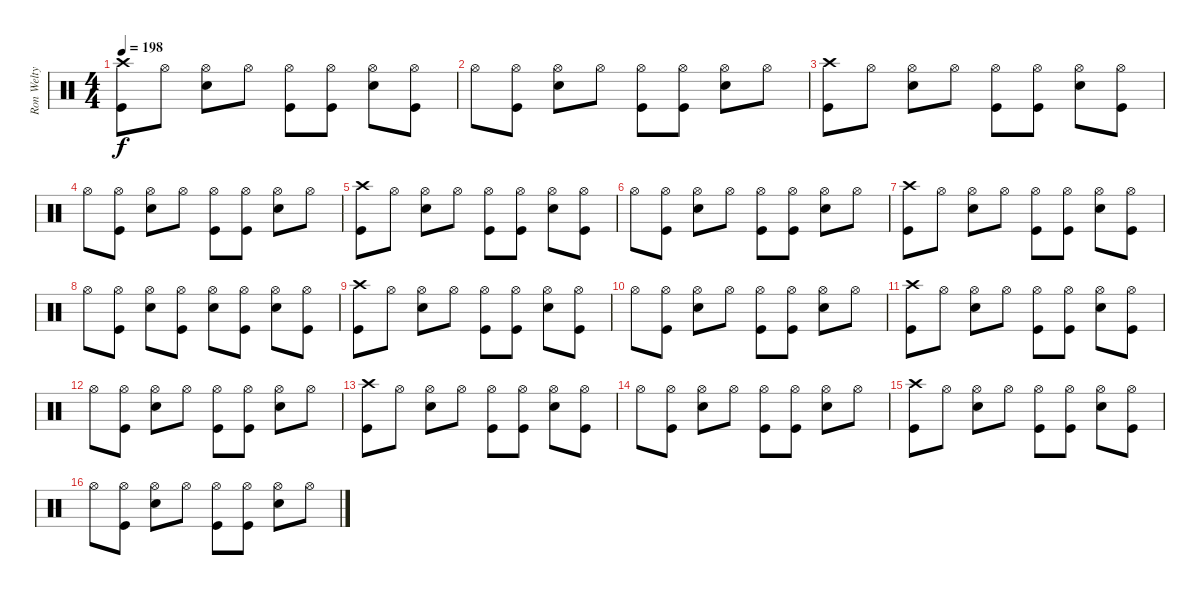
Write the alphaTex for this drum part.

\track ("Ron Welty" "Ron Welty") {instrument percussion}
\staff {score}
\articulation defaults
\ts (4 4)
\tempo 198
\clef neutral
\ks c
("Kick (hit)" "Crash high (hit)").8{dy f} "Hi-Hat (open)".8 ("Hi-Hat (open)" "Snare (hit) 2").8 "Hi-Hat (open)".8 ("Hi-Hat (open)" "Kick (hit)").8 ("Hi-Hat (open)" "Kick (hit)").8 ("Hi-Hat (open)" "Snare (hit) 2").8 ("Hi-Hat (open)" "Kick (hit)").8 |
"Hi-Hat (open)".8 ("Kick (hit)" "Hi-Hat (open)").8 ("Hi-Hat (open)" "Snare (hit) 2").8 "Hi-Hat (open)".8 ("Hi-Hat (open)" "Kick (hit)").8 ("Kick (hit)" "Hi-Hat (open)").8 ("Hi-Hat (open)" "Snare (hit) 2").8 "Hi-Hat (open)".8 |
("Kick (hit)" "Crash high (hit)").8 "Hi-Hat (open)".8 ("Hi-Hat (open)" "Snare (hit) 2").8 "Hi-Hat (open)".8 ("Hi-Hat (open)" "Kick (hit)").8 ("Hi-Hat (open)" "Kick (hit)").8 ("Hi-Hat (open)" "Snare (hit) 2").8 ("Hi-Hat (open)" "Kick (hit)").8 |
"Hi-Hat (open)".8 ("Kick (hit)" "Hi-Hat (open)").8 ("Hi-Hat (open)" "Snare (hit) 2").8 "Hi-Hat (open)".8 ("Hi-Hat (open)" "Kick (hit)").8 ("Kick (hit)" "Hi-Hat (open)").8 ("Hi-Hat (open)" "Snare (hit) 2").8 "Hi-Hat (open)".8 |
("Kick (hit)" "Crash high (hit)").8 "Hi-Hat (open)".8 ("Hi-Hat (open)" "Snare (hit) 2").8 "Hi-Hat (open)".8 ("Hi-Hat (open)" "Kick (hit)").8 ("Hi-Hat (open)" "Kick (hit)").8 ("Hi-Hat (open)" "Snare (hit) 2").8 ("Hi-Hat (open)" "Kick (hit)").8 |
"Hi-Hat (open)".8 ("Kick (hit)" "Hi-Hat (open)").8 ("Hi-Hat (open)" "Snare (hit) 2").8 "Hi-Hat (open)".8 ("Hi-Hat (open)" "Kick (hit)").8 ("Kick (hit)" "Hi-Hat (open)").8 ("Hi-Hat (open)" "Snare (hit) 2").8 "Hi-Hat (open)".8 |
("Kick (hit)" "Crash high (hit)").8 "Hi-Hat (open)".8 ("Hi-Hat (open)" "Snare (hit) 2").8 "Hi-Hat (open)".8 ("Hi-Hat (open)" "Kick (hit)").8 ("Hi-Hat (open)" "Kick (hit)").8 ("Hi-Hat (open)" "Snare (hit) 2").8 ("Hi-Hat (open)" "Kick (hit)").8 |
"Hi-Hat (open)".8 ("Hi-Hat (open)" "Kick (hit)").8 ("Hi-Hat (open)" "Snare (hit) 2").8 ("Hi-Hat (open)" "Kick (hit)").8 ("Hi-Hat (open)" "Snare (hit) 2").8 ("Hi-Hat (open)" "Kick (hit)").8 ("Hi-Hat (open)" "Snare (hit) 2").8 ("Hi-Hat (open)" "Kick (hit)").8 |
("Kick (hit)" "Crash high (hit)").8 "Hi-Hat (open)".8 ("Hi-Hat (open)" "Snare (hit) 2").8 "Hi-Hat (open)".8 ("Hi-Hat (open)" "Kick (hit)").8 ("Hi-Hat (open)" "Kick (hit)").8 ("Hi-Hat (open)" "Snare (hit) 2").8 ("Hi-Hat (open)" "Kick (hit)").8 |
"Hi-Hat (open)".8 ("Kick (hit)" "Hi-Hat (open)").8 ("Hi-Hat (open)" "Snare (hit) 2").8 "Hi-Hat (open)".8 ("Hi-Hat (open)" "Kick (hit)").8 ("Kick (hit)" "Hi-Hat (open)").8 ("Hi-Hat (open)" "Snare (hit) 2").8 "Hi-Hat (open)".8 |
("Kick (hit)" "Crash high (hit)").8 "Hi-Hat (open)".8 ("Hi-Hat (open)" "Snare (hit) 2").8 "Hi-Hat (open)".8 ("Hi-Hat (open)" "Kick (hit)").8 ("Hi-Hat (open)" "Kick (hit)").8 ("Hi-Hat (open)" "Snare (hit) 2").8 ("Hi-Hat (open)" "Kick (hit)").8 |
"Hi-Hat (open)".8 ("Kick (hit)" "Hi-Hat (open)").8 ("Hi-Hat (open)" "Snare (hit) 2").8 "Hi-Hat (open)".8 ("Hi-Hat (open)" "Kick (hit)").8 ("Kick (hit)" "Hi-Hat (open)").8 ("Hi-Hat (open)" "Snare (hit) 2").8 "Hi-Hat (open)".8 |
("Kick (hit)" "Crash high (hit)").8 "Hi-Hat (open)".8 ("Hi-Hat (open)" "Snare (hit) 2").8 "Hi-Hat (open)".8 ("Hi-Hat (open)" "Kick (hit)").8 ("Hi-Hat (open)" "Kick (hit)").8 ("Hi-Hat (open)" "Snare (hit) 2").8 ("Hi-Hat (open)" "Kick (hit)").8 |
"Hi-Hat (open)".8 ("Kick (hit)" "Hi-Hat (open)").8 ("Hi-Hat (open)" "Snare (hit) 2").8 "Hi-Hat (open)".8 ("Hi-Hat (open)" "Kick (hit)").8 ("Kick (hit)" "Hi-Hat (open)").8 ("Hi-Hat (open)" "Snare (hit) 2").8 "Hi-Hat (open)".8 |
("Kick (hit)" "Crash high (hit)").8 "Hi-Hat (open)".8 ("Hi-Hat (open)" "Snare (hit) 2").8 "Hi-Hat (open)".8 ("Hi-Hat (open)" "Kick (hit)").8 ("Hi-Hat (open)" "Kick (hit)").8 ("Hi-Hat (open)" "Snare (hit) 2").8 ("Hi-Hat (open)" "Kick (hit)").8 |
"Hi-Hat (open)".8 ("Kick (hit)" "Hi-Hat (open)").8 ("Hi-Hat (open)" "Snare (hit) 2").8 "Hi-Hat (open)".8 ("Hi-Hat (open)" "Kick (hit)").8 ("Kick (hit)" "Hi-Hat (open)").8 ("Hi-Hat (open)" "Snare (hit) 2").8 "Hi-Hat (open)".8
